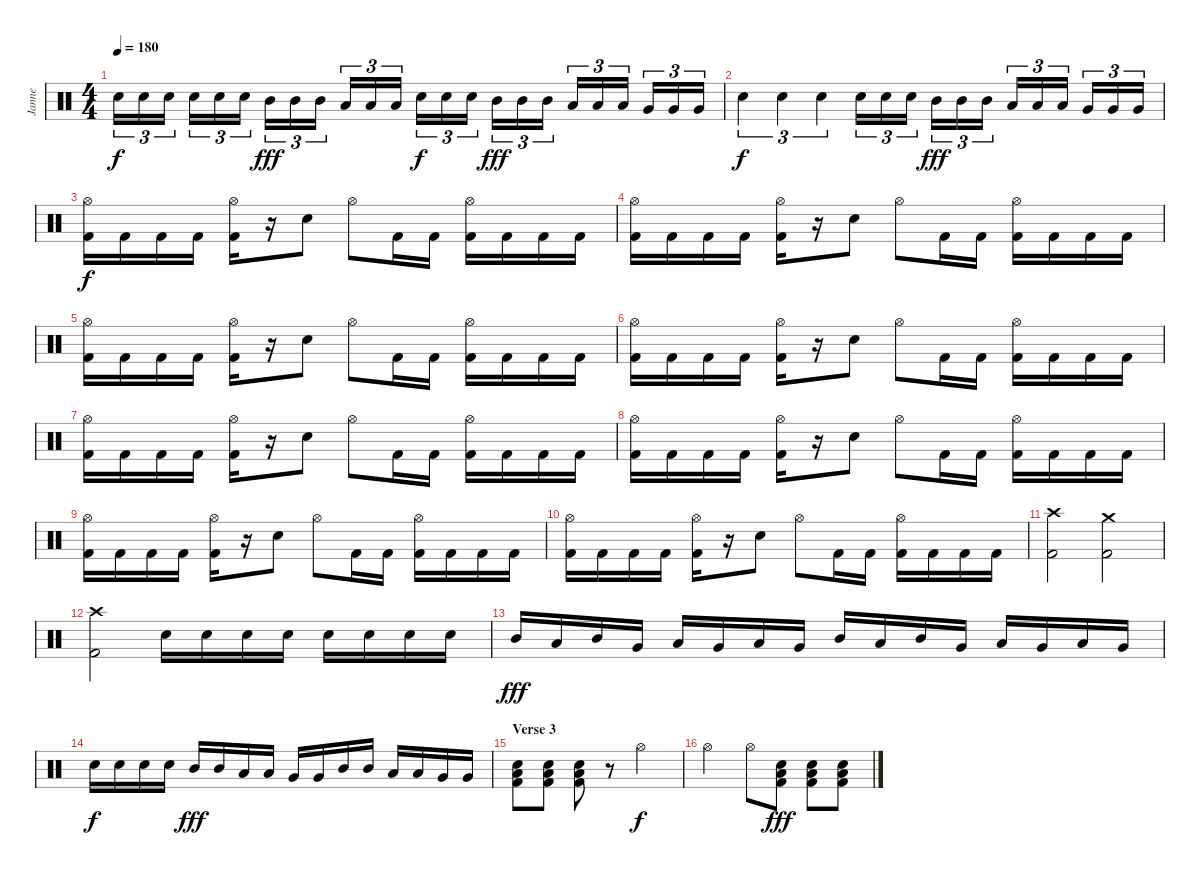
\track ("Janne" "Janne") {instrument percussion}
\staff {score}
\articulation defaults
\ts (4 4)
\tempo 180
\clef neutral
\ks c "Electric Snare (hit)".16{tu (3 2) dy f} "Electric Snare (hit)".16{tu (3 2)} "Electric Snare (hit)".16{tu (3 2)} "Electric Snare (hit)".16{tu (3 2)} "Electric Snare (hit)".16{tu (3 2)} "Electric Snare (hit)".16{tu (3 2)} "Mid Tom (hit)".16{tu (3 2) dy fff} "Mid Tom (hit)".16{tu (3 2)} "Mid Tom (hit)".16{tu (3 2)} "Low Tom (hit)".16{tu (3 2)} "Low Tom (hit)".16{tu (3 2)} "Low Tom (hit)".16{tu (3 2)} "Electric Snare (hit)".16{tu (3 2) dy f} "Electric Snare (hit)".16{tu (3 2)} "Electric Snare (hit)".16{tu (3 2)} "Mid Tom (hit)".16{tu (3 2) dy fff} "Mid Tom (hit)".16{tu (3 2)} "Mid Tom (hit)".16{tu (3 2)} "Low Tom (hit)".16{tu (3 2)} "Low Tom (hit)".16{tu (3 2)} "Low Tom (hit)".16{tu (3 2)} "Very Low Tom (hit)".16{tu (3 2)} "Very Low Tom (hit)".16{tu (3 2)} "Very Low Tom (hit)".16{tu (3 2)}
|
"Electric Snare (hit)".4{tu (3 2) dy f} "Electric Snare (hit)".4{tu (3 2)} "Electric Snare (hit)".4{tu (3 2)} "Electric Snare (hit)".16{tu (3 2)} "Electric Snare (hit)".16{tu (3 2)} "Electric Snare (hit)".16{tu (3 2)} "Mid Tom (hit)".16{tu (3 2) dy fff} "Mid Tom (hit)".16{tu (3 2)} "Mid Tom (hit)".16{tu (3 2)} "Low Tom (hit)".16{tu (3 2)} "Low Tom (hit)".16{tu (3 2)} "Low Tom (hit)".16{tu (3 2)} "Very Low Tom (hit)".16{tu (3 2)} "Very Low Tom (hit)".16{tu (3 2)} "Very Low Tom (hit)".16{tu (3 2)} |
("Hi-Hat (open)" "Kick (hit) 2").16{dy f} "Kick (hit) 2".16 "Kick (hit) 2".16 "Kick (hit) 2".16 ("Hi-Hat (open)" "Kick (hit) 2").16 r.16 "Electric Snare (hit)".8 "Hi-Hat (open)".8 "Kick (hit) 2".16 "Kick (hit) 2".16 ("Hi-Hat (open)" "Kick (hit) 2").16 "Kick (hit) 2".16 "Kick (hit) 2".16 "Kick (hit) 2".16 |
("Hi-Hat (open)" "Kick (hit) 2").16 "Kick (hit) 2".16 "Kick (hit) 2".16 "Kick (hit) 2".16 ("Hi-Hat (open)" "Kick (hit) 2").16 r.16 "Electric Snare (hit)".8 "Hi-Hat (open)".8 "Kick (hit) 2".16 "Kick (hit) 2".16 ("Hi-Hat (open)" "Kick (hit) 2").16 "Kick (hit) 2".16 "Kick (hit) 2".16 "Kick (hit) 2".16 |
("Hi-Hat (open)" "Kick (hit) 2").16 "Kick (hit) 2".16 "Kick (hit) 2".16 "Kick (hit) 2".16 ("Hi-Hat (open)" "Kick (hit) 2").16 r.16 "Electric Snare (hit)".8 "Hi-Hat (open)".8 "Kick (hit) 2".16 "Kick (hit) 2".16 ("Hi-Hat (open)" "Kick (hit) 2").16 "Kick (hit) 2".16 "Kick (hit) 2".16 "Kick (hit) 2".16 |
("Hi-Hat (open)" "Kick (hit) 2").16 "Kick (hit) 2".16 "Kick (hit) 2".16 "Kick (hit) 2".16 ("Hi-Hat (open)" "Kick (hit) 2").16 r.16 "Electric Snare (hit)".8 "Hi-Hat (open)".8 "Kick (hit) 2".16 "Kick (hit) 2".16 ("Hi-Hat (open)" "Kick (hit) 2").16 "Kick (hit) 2".16 "Kick (hit) 2".16 "Kick (hit) 2".16 |
("Hi-Hat (open)" "Kick (hit) 2").16 "Kick (hit) 2".16 "Kick (hit) 2".16 "Kick (hit) 2".16 ("Hi-Hat (open)" "Kick (hit) 2").16 r.16 "Electric Snare (hit)".8 "Hi-Hat (open)".8 "Kick (hit) 2".16 "Kick (hit) 2".16 ("Hi-Hat (open)" "Kick (hit) 2").16 "Kick (hit) 2".16 "Kick (hit) 2".16 "Kick (hit) 2".16 |
("Hi-Hat (open)" "Kick (hit) 2").16 "Kick (hit) 2".16 "Kick (hit) 2".16 "Kick (hit) 2".16 ("Hi-Hat (open)" "Kick (hit) 2").16 r.16 "Electric Snare (hit)".8 "Hi-Hat (open)".8 "Kick (hit) 2".16 "Kick (hit) 2".16 ("Hi-Hat (open)" "Kick (hit) 2").16 "Kick (hit) 2".16 "Kick (hit) 2".16 "Kick (hit) 2".16 |
("Hi-Hat (open)" "Kick (hit) 2").16 "Kick (hit) 2".16 "Kick (hit) 2".16 "Kick (hit) 2".16 ("Hi-Hat (open)" "Kick (hit) 2").16 r.16 "Electric Snare (hit)".8 "Hi-Hat (open)".8 "Kick (hit) 2".16 "Kick (hit) 2".16 ("Hi-Hat (open)" "Kick (hit) 2").16 "Kick (hit) 2".16 "Kick (hit) 2".16 "Kick (hit) 2".16 |
("Hi-Hat (open)" "Kick (hit) 2").16 "Kick (hit) 2".16 "Kick (hit) 2".16 "Kick (hit) 2".16 ("Hi-Hat (open)" "Kick (hit) 2").16 r.16 "Electric Snare (hit)".8 "Hi-Hat (open)".8 "Kick (hit) 2".16 "Kick (hit) 2".16 ("Hi-Hat (open)" "Kick (hit) 2").16 "Kick (hit) 2".16 "Kick (hit) 2".16 "Kick (hit) 2".16 |
("Crash high (hit)" "Kick (hit) 2").2 ("Crash medium (hit)" "Kick (hit) 2").2 |
("Crash high (hit)" "Kick (hit) 2").2 "Electric Snare (hit)".16 "Electric Snare (hit)".16 "Electric Snare (hit)".16 "Electric Snare (hit)".16 "Electric Snare (hit)".16 "Electric Snare (hit)".16 "Electric Snare (hit)".16 "Electric Snare (hit)".16 |
"Mid Tom (hit)".16{dy fff} "Low Tom (hit)".16 "Mid Tom (hit)".16 "Very Low Tom (hit)".16 "Low Tom (hit)".16 "Very Low Tom (hit)".16 "Low Tom (hit)".16 "Very Low Tom (hit)".16 "Mid Tom (hit)".16 "Low Tom (hit)".16 "Mid Tom (hit)".16 "Very Low Tom (hit)".16 "Low Tom (hit)".16 "Very Low Tom (hit)".16 "Low Tom (hit)".16 "Very Low Tom (hit)".16 |
"Electric Snare (hit)".16{dy f} "Electric Snare (hit)".16 "Electric Snare (hit)".16 "Electric Snare (hit)".16 "Mid Tom (hit)".16{dy fff} "Mid Tom (hit)".16 "Low Tom (hit)".16 "Low Tom (hit)".16 "Very Low Tom (hit)".16 "Very Low Tom (hit)".16 "Mid Tom (hit)".16 "Mid Tom (hit)".16 "Low Tom (hit)".16 "Low Tom (hit)".16 "Very Low Tom (hit)".16 "Very Low Tom (hit)".16 |
\section ("" "Verse 3")
("Low Floor Tom (hit)" "Electric Snare (hit)" "Kick (hit) 2").8 ("Low Floor Tom (hit)" "Electric Snare (hit)" "Kick (hit) 2").8 ("Low Floor Tom (hit)" "Electric Snare (hit)" "Kick (hit) 2").8 r.8 "Hi-Hat (open)".2{dy f} |
"Hi-Hat (open)".2 "Hi-Hat (open)".8 ("Low Floor Tom (hit)" "Electric Snare (hit)" "Kick (hit) 2").8{dy fff} ("Low Floor Tom (hit)" "Electric Snare (hit)" "Kick (hit) 2").8 ("Low Floor Tom (hit)" "Electric Snare (hit)" "Kick (hit) 2").8
